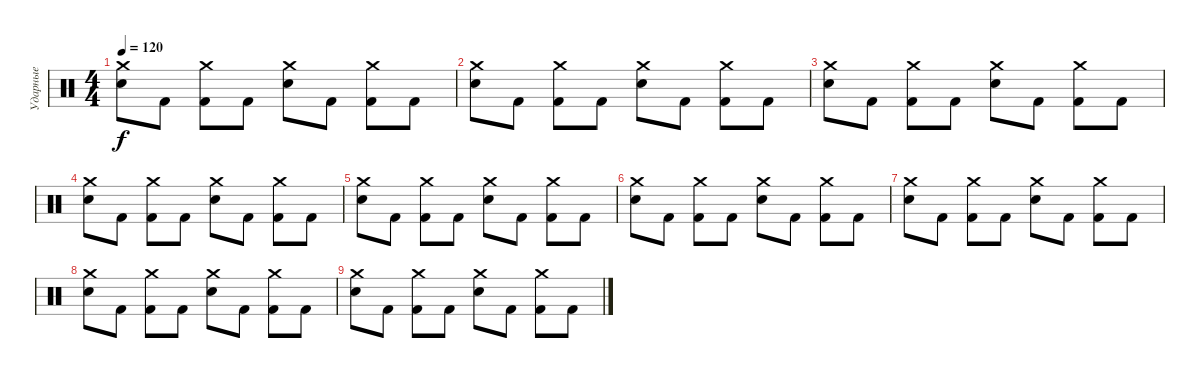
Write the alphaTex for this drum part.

\track ("Ударные" "Ударные") {instrument percussion}
\staff {score}
\articulation defaults
\ts (4 4)
\tempo 120
\clef neutral
\ks c
("Crash medium (hit)" "Electric Snare (hit)").8{dy f} "Kick (hit) 2".8 ("Crash medium (hit)" "Kick (hit) 2").8 "Kick (hit) 2".8 ("Crash medium (hit)" "Electric Snare (hit)").8 "Kick (hit) 2".8 ("Crash medium (hit)" "Kick (hit) 2").8 "Kick (hit) 2".8 |
("Crash medium (hit)" "Electric Snare (hit)").8 "Kick (hit) 2".8 ("Crash medium (hit)" "Kick (hit) 2").8 "Kick (hit) 2".8 ("Crash medium (hit)" "Electric Snare (hit)").8 "Kick (hit) 2".8 ("Crash medium (hit)" "Kick (hit) 2").8 "Kick (hit) 2".8 |
("Crash medium (hit)" "Electric Snare (hit)").8 "Kick (hit) 2".8 ("Crash medium (hit)" "Kick (hit) 2").8 "Kick (hit) 2".8 ("Crash medium (hit)" "Electric Snare (hit)").8 "Kick (hit) 2".8 ("Crash medium (hit)" "Kick (hit) 2").8 "Kick (hit) 2".8 |
("Crash medium (hit)" "Electric Snare (hit)").8{volume 0} "Kick (hit) 2".8 ("Crash medium (hit)" "Kick (hit) 2").8 "Kick (hit) 2".8 ("Crash medium (hit)" "Electric Snare (hit)").8 "Kick (hit) 2".8 ("Crash medium (hit)" "Kick (hit) 2").8 "Kick (hit) 2".8 |
("Crash medium (hit)" "Electric Snare (hit)").8 "Kick (hit) 2".8 ("Crash medium (hit)" "Kick (hit) 2").8 "Kick (hit) 2".8 ("Crash medium (hit)" "Electric Snare (hit)").8 "Kick (hit) 2".8 ("Crash medium (hit)" "Kick (hit) 2").8 "Kick (hit) 2".8 |
("Crash medium (hit)" "Electric Snare (hit)").8 "Kick (hit) 2".8 ("Crash medium (hit)" "Kick (hit) 2").8 "Kick (hit) 2".8 ("Crash medium (hit)" "Electric Snare (hit)").8 "Kick (hit) 2".8 ("Crash medium (hit)" "Kick (hit) 2").8 "Kick (hit) 2".8 |
("Crash medium (hit)" "Electric Snare (hit)").8 "Kick (hit) 2".8 ("Crash medium (hit)" "Kick (hit) 2").8 "Kick (hit) 2".8 ("Crash medium (hit)" "Electric Snare (hit)").8 "Kick (hit) 2".8 ("Crash medium (hit)" "Kick (hit) 2").8 "Kick (hit) 2".8 |
("Crash medium (hit)" "Electric Snare (hit)").8 "Kick (hit) 2".8 ("Crash medium (hit)" "Kick (hit) 2").8 "Kick (hit) 2".8 ("Crash medium (hit)" "Electric Snare (hit)").8 "Kick (hit) 2".8 ("Crash medium (hit)" "Kick (hit) 2").8 "Kick (hit) 2".8 |
("Crash medium (hit)" "Electric Snare (hit)").8 "Kick (hit) 2".8 ("Crash medium (hit)" "Kick (hit) 2").8 "Kick (hit) 2".8 ("Crash medium (hit)" "Electric Snare (hit)").8 "Kick (hit) 2".8 ("Crash medium (hit)" "Kick (hit) 2").8 "Kick (hit) 2".8
